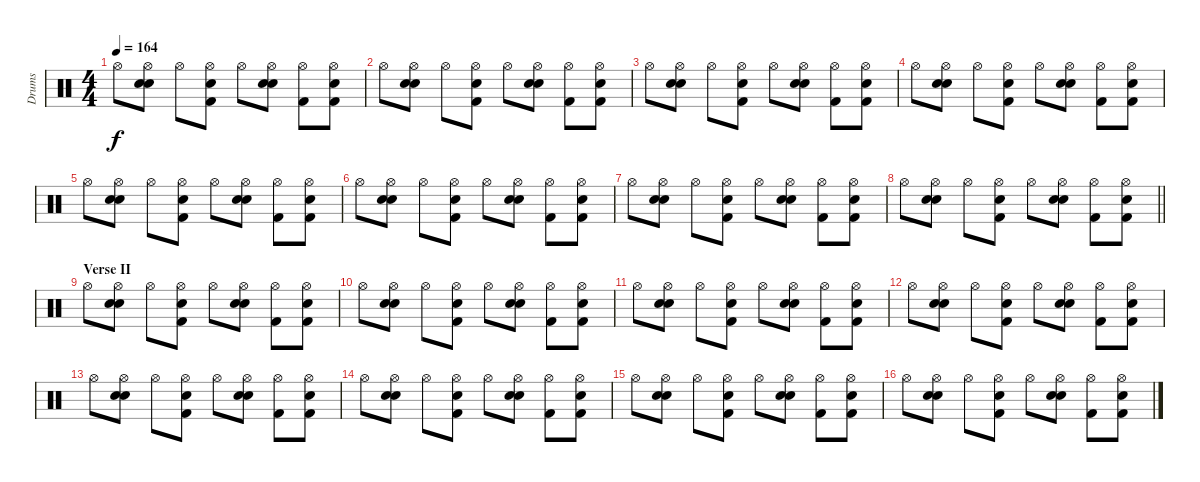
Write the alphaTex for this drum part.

\track ("Drums" "Drums") {instrument percussion}
\staff {score}
\articulation defaults
\ts (4 4)
\tempo 164
\clef neutral
\ks c "Hi-Hat (open)".8{dy f}
("Snare (hit) 2" "Hi-Hat (open)" "Hand Clap (hit)").8 "Hi-Hat (open)".8 ("Kick (hit) 2" "Hi-Hat (open)" "Hand Clap (hit)").8 "Hi-Hat (open)".8 ("Snare (hit) 2" "Hi-Hat (open)" "Hand Clap (hit)").8 ("Kick (hit) 2" "Hi-Hat (open)").8 ("Kick (hit) 2" "Hi-Hat (open)" "Hand Clap (hit)").8 |
"Hi-Hat (open)".8 ("Snare (hit) 2" "Hi-Hat (open)" "Hand Clap (hit)").8 "Hi-Hat (open)".8 ("Kick (hit) 2" "Hi-Hat (open)" "Hand Clap (hit)").8 "Hi-Hat (open)".8 ("Snare (hit) 2" "Hi-Hat (open)" "Hand Clap (hit)").8 ("Kick (hit) 2" "Hi-Hat (open)").8 ("Kick (hit) 2" "Hi-Hat (open)" "Hand Clap (hit)").8 |
"Hi-Hat (open)".8 ("Snare (hit) 2" "Hi-Hat (open)" "Hand Clap (hit)").8 "Hi-Hat (open)".8 ("Kick (hit) 2" "Hi-Hat (open)" "Hand Clap (hit)").8 "Hi-Hat (open)".8 ("Snare (hit) 2" "Hi-Hat (open)" "Hand Clap (hit)").8 ("Kick (hit) 2" "Hi-Hat (open)").8 ("Kick (hit) 2" "Hi-Hat (open)" "Hand Clap (hit)").8 |
"Hi-Hat (open)".8 ("Snare (hit) 2" "Hi-Hat (open)" "Hand Clap (hit)").8 "Hi-Hat (open)".8 ("Kick (hit) 2" "Hi-Hat (open)" "Hand Clap (hit)").8 "Hi-Hat (open)".8 ("Snare (hit) 2" "Hi-Hat (open)" "Hand Clap (hit)").8 ("Kick (hit) 2" "Hi-Hat (open)").8 ("Kick (hit) 2" "Hi-Hat (open)" "Hand Clap (hit)").8 |
"Hi-Hat (open)".8 ("Snare (hit) 2" "Hi-Hat (open)" "Hand Clap (hit)").8 "Hi-Hat (open)".8 ("Kick (hit) 2" "Hi-Hat (open)" "Hand Clap (hit)").8 "Hi-Hat (open)".8 ("Snare (hit) 2" "Hi-Hat (open)" "Hand Clap (hit)").8 ("Kick (hit) 2" "Hi-Hat (open)").8 ("Kick (hit) 2" "Hi-Hat (open)" "Hand Clap (hit)").8 |
"Hi-Hat (open)".8 ("Snare (hit) 2" "Hi-Hat (open)" "Hand Clap (hit)").8 "Hi-Hat (open)".8 ("Kick (hit) 2" "Hi-Hat (open)" "Hand Clap (hit)").8 "Hi-Hat (open)".8 ("Snare (hit) 2" "Hi-Hat (open)" "Hand Clap (hit)").8 ("Kick (hit) 2" "Hi-Hat (open)").8 ("Kick (hit) 2" "Hi-Hat (open)" "Hand Clap (hit)").8 |
"Hi-Hat (open)".8 ("Snare (hit) 2" "Hi-Hat (open)" "Hand Clap (hit)").8 "Hi-Hat (open)".8 ("Kick (hit) 2" "Hi-Hat (open)" "Hand Clap (hit)").8 "Hi-Hat (open)".8 ("Snare (hit) 2" "Hi-Hat (open)" "Hand Clap (hit)").8 ("Kick (hit) 2" "Hi-Hat (open)").8 ("Kick (hit) 2" "Hi-Hat (open)" "Hand Clap (hit)").8 |
\barLineRight lightlight "Hi-Hat (open)".8
("Snare (hit) 2" "Hi-Hat (open)" "Hand Clap (hit)").8 "Hi-Hat (open)".8 ("Kick (hit) 2" "Hi-Hat (open)" "Hand Clap (hit)").8 "Hi-Hat (open)".8 ("Snare (hit) 2" "Hi-Hat (open)" "Hand Clap (hit)").8 ("Kick (hit) 2" "Hi-Hat (open)").8 ("Kick (hit) 2" "Hi-Hat (open)" "Hand Clap (hit)").8 |
\section ("" "Verse II")
"Hi-Hat (open)".8 ("Snare (hit) 2" "Hi-Hat (open)" "Hand Clap (hit)").8 "Hi-Hat (open)".8 ("Kick (hit) 2" "Hi-Hat (open)" "Hand Clap (hit)").8 "Hi-Hat (open)".8 ("Snare (hit) 2" "Hi-Hat (open)" "Hand Clap (hit)").8 ("Kick (hit) 2" "Hi-Hat (open)").8 ("Kick (hit) 2" "Hi-Hat (open)" "Hand Clap (hit)").8 |
"Hi-Hat (open)".8 ("Snare (hit) 2" "Hi-Hat (open)" "Hand Clap (hit)").8 "Hi-Hat (open)".8 ("Kick (hit) 2" "Hi-Hat (open)" "Hand Clap (hit)").8 "Hi-Hat (open)".8 ("Snare (hit) 2" "Hi-Hat (open)" "Hand Clap (hit)").8 ("Kick (hit) 2" "Hi-Hat (open)").8 ("Kick (hit) 2" "Hi-Hat (open)" "Hand Clap (hit)").8 |
"Hi-Hat (open)".8 ("Snare (hit) 2" "Hi-Hat (open)" "Hand Clap (hit)").8 "Hi-Hat (open)".8 ("Kick (hit) 2" "Hi-Hat (open)" "Hand Clap (hit)").8 "Hi-Hat (open)".8 ("Snare (hit) 2" "Hi-Hat (open)" "Hand Clap (hit)").8 ("Kick (hit) 2" "Hi-Hat (open)").8 ("Kick (hit) 2" "Hi-Hat (open)" "Hand Clap (hit)").8 |
"Hi-Hat (open)".8 ("Snare (hit) 2" "Hi-Hat (open)" "Hand Clap (hit)").8 "Hi-Hat (open)".8 ("Kick (hit) 2" "Hi-Hat (open)" "Hand Clap (hit)").8 "Hi-Hat (open)".8 ("Snare (hit) 2" "Hi-Hat (open)" "Hand Clap (hit)").8 ("Kick (hit) 2" "Hi-Hat (open)").8 ("Kick (hit) 2" "Hi-Hat (open)" "Hand Clap (hit)").8 |
"Hi-Hat (open)".8 ("Snare (hit) 2" "Hi-Hat (open)" "Hand Clap (hit)").8 "Hi-Hat (open)".8 ("Kick (hit) 2" "Hi-Hat (open)" "Hand Clap (hit)").8 "Hi-Hat (open)".8 ("Snare (hit) 2" "Hi-Hat (open)" "Hand Clap (hit)").8 ("Kick (hit) 2" "Hi-Hat (open)").8 ("Kick (hit) 2" "Hi-Hat (open)" "Hand Clap (hit)").8 |
"Hi-Hat (open)".8 ("Snare (hit) 2" "Hi-Hat (open)" "Hand Clap (hit)").8 "Hi-Hat (open)".8 ("Kick (hit) 2" "Hi-Hat (open)" "Hand Clap (hit)").8 "Hi-Hat (open)".8 ("Snare (hit) 2" "Hi-Hat (open)" "Hand Clap (hit)").8 ("Kick (hit) 2" "Hi-Hat (open)").8 ("Kick (hit) 2" "Hi-Hat (open)" "Hand Clap (hit)").8 |
"Hi-Hat (open)".8 ("Snare (hit) 2" "Hi-Hat (open)" "Hand Clap (hit)").8 "Hi-Hat (open)".8 ("Kick (hit) 2" "Hi-Hat (open)" "Hand Clap (hit)").8 "Hi-Hat (open)".8 ("Snare (hit) 2" "Hi-Hat (open)" "Hand Clap (hit)").8 ("Kick (hit) 2" "Hi-Hat (open)").8 ("Kick (hit) 2" "Hi-Hat (open)" "Hand Clap (hit)").8 |
"Hi-Hat (open)".8 ("Snare (hit) 2" "Hi-Hat (open)" "Hand Clap (hit)").8 "Hi-Hat (open)".8 ("Kick (hit) 2" "Hi-Hat (open)" "Hand Clap (hit)").8 "Hi-Hat (open)".8 ("Snare (hit) 2" "Hi-Hat (open)" "Hand Clap (hit)").8 ("Kick (hit) 2" "Hi-Hat (open)").8 ("Kick (hit) 2" "Hi-Hat (open)" "Hand Clap (hit)").8
